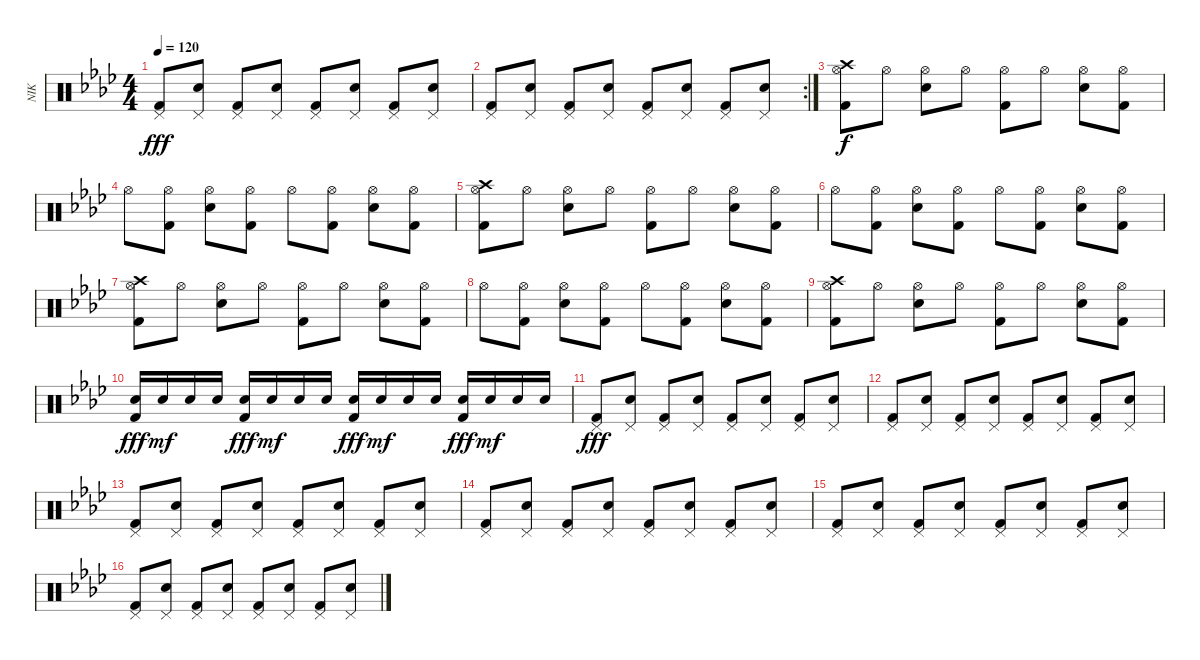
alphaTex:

\track ("NIK" "NIK") {instrument percussion}
\staff {score}
\articulation defaults
\ts (4 4)
\tempo 120
\clef neutral
\ks ab
("Pedal Hi-Hat (hit)" "Kick (hit) 2").8{dy fff} ("Pedal Hi-Hat (hit)" "Electric Snare (hit)").8 ("Pedal Hi-Hat (hit)" "Kick (hit) 2").8 ("Pedal Hi-Hat (hit)" "Electric Snare (hit)").8 ("Pedal Hi-Hat (hit)" "Kick (hit) 2").8 ("Pedal Hi-Hat (hit)" "Electric Snare (hit)").8 ("Pedal Hi-Hat (hit)" "Kick (hit) 2").8 ("Pedal Hi-Hat (hit)" "Electric Snare (hit)").8 |
\rc 2
("Pedal Hi-Hat (hit)" "Kick (hit) 2").8 ("Pedal Hi-Hat (hit)" "Electric Snare (hit)").8 ("Pedal Hi-Hat (hit)" "Kick (hit) 2").8 ("Pedal Hi-Hat (hit)" "Electric Snare (hit)").8 ("Pedal Hi-Hat (hit)" "Kick (hit) 2").8 ("Pedal Hi-Hat (hit)" "Electric Snare (hit)").8 ("Pedal Hi-Hat (hit)" "Kick (hit) 2").8 ("Pedal Hi-Hat (hit)" "Electric Snare (hit)").8 |
("Crash high (hit)" "Hi-Hat (open)" "Kick (hit) 2").8{dy f} "Hi-Hat (open)".8 ("Hi-Hat (open)" "Electric Snare (hit)").8 "Hi-Hat (open)".8 ("Hi-Hat (open)" "Kick (hit) 2").8 "Hi-Hat (open)".8 ("Hi-Hat (open)" "Electric Snare (hit)").8 ("Hi-Hat (open)" "Kick (hit) 2").8 |
"Hi-Hat (open)".8 ("Hi-Hat (open)" "Kick (hit) 2").8 ("Hi-Hat (open)" "Electric Snare (hit)").8 ("Hi-Hat (open)" "Kick (hit) 2").8 "Hi-Hat (open)".8 ("Hi-Hat (open)" "Kick (hit) 2").8 ("Hi-Hat (open)" "Electric Snare (hit)").8 ("Hi-Hat (open)" "Kick (hit) 2").8 |
("Crash high (hit)" "Hi-Hat (open)" "Kick (hit) 2").8 "Hi-Hat (open)".8 ("Hi-Hat (open)" "Electric Snare (hit)").8 "Hi-Hat (open)".8 ("Hi-Hat (open)" "Kick (hit) 2").8 "Hi-Hat (open)".8 ("Hi-Hat (open)" "Electric Snare (hit)").8 ("Hi-Hat (open)" "Kick (hit) 2").8 |
"Hi-Hat (open)".8 ("Hi-Hat (open)" "Kick (hit) 2").8 ("Hi-Hat (open)" "Electric Snare (hit)").8 ("Hi-Hat (open)" "Kick (hit) 2").8 "Hi-Hat (open)".8 ("Hi-Hat (open)" "Kick (hit) 2").8 ("Hi-Hat (open)" "Electric Snare (hit)").8 ("Hi-Hat (open)" "Kick (hit) 2").8 |
("Crash high (hit)" "Hi-Hat (open)" "Kick (hit) 2").8 "Hi-Hat (open)".8 ("Hi-Hat (open)" "Electric Snare (hit)").8 "Hi-Hat (open)".8 ("Hi-Hat (open)" "Kick (hit) 2").8 "Hi-Hat (open)".8 ("Hi-Hat (open)" "Electric Snare (hit)").8 ("Hi-Hat (open)" "Kick (hit) 2").8 |
"Hi-Hat (open)".8 ("Hi-Hat (open)" "Kick (hit) 2").8 ("Hi-Hat (open)" "Electric Snare (hit)").8 ("Hi-Hat (open)" "Kick (hit) 2").8 "Hi-Hat (open)".8 ("Hi-Hat (open)" "Kick (hit) 2").8 ("Hi-Hat (open)" "Electric Snare (hit)").8 ("Hi-Hat (open)" "Kick (hit) 2").8 |
("Crash high (hit)" "Hi-Hat (open)" "Kick (hit) 2").8 "Hi-Hat (open)".8 ("Hi-Hat (open)" "Electric Snare (hit)").8 "Hi-Hat (open)".8 ("Hi-Hat (open)" "Kick (hit) 2").8 "Hi-Hat (open)".8 ("Hi-Hat (open)" "Electric Snare (hit)").8 ("Hi-Hat (open)" "Kick (hit) 2").8 |
("Electric Snare (hit)" "Kick (hit) 2").16{dy fff} "Electric Snare (hit)".16{dy mf} "Electric Snare (hit)".16 "Electric Snare (hit)".16 ("Electric Snare (hit)" "Kick (hit) 2").16{dy fff} "Electric Snare (hit)".16{dy mf} "Electric Snare (hit)".16 "Electric Snare (hit)".16 ("Electric Snare (hit)" "Kick (hit) 2").16{dy fff} "Electric Snare (hit)".16{dy mf} "Electric Snare (hit)".16 "Electric Snare (hit)".16 ("Electric Snare (hit)" "Kick (hit) 2").16{dy fff} "Electric Snare (hit)".16{dy mf} "Electric Snare (hit)".16 "Electric Snare (hit)".16 |
("Pedal Hi-Hat (hit)" "Kick (hit) 2").8{dy fff} ("Pedal Hi-Hat (hit)" "Electric Snare (hit)").8 ("Pedal Hi-Hat (hit)" "Kick (hit) 2").8 ("Pedal Hi-Hat (hit)" "Electric Snare (hit)").8 ("Pedal Hi-Hat (hit)" "Kick (hit) 2").8 ("Pedal Hi-Hat (hit)" "Electric Snare (hit)").8 ("Pedal Hi-Hat (hit)" "Kick (hit) 2").8 ("Pedal Hi-Hat (hit)" "Electric Snare (hit)").8 |
("Pedal Hi-Hat (hit)" "Kick (hit) 2").8 ("Pedal Hi-Hat (hit)" "Electric Snare (hit)").8 ("Pedal Hi-Hat (hit)" "Kick (hit) 2").8 ("Pedal Hi-Hat (hit)" "Electric Snare (hit)").8 ("Pedal Hi-Hat (hit)" "Kick (hit) 2").8 ("Pedal Hi-Hat (hit)" "Electric Snare (hit)").8 ("Pedal Hi-Hat (hit)" "Kick (hit) 2").8 ("Pedal Hi-Hat (hit)" "Electric Snare (hit)").8 |
("Pedal Hi-Hat (hit)" "Kick (hit) 2").8 ("Pedal Hi-Hat (hit)" "Electric Snare (hit)").8 ("Pedal Hi-Hat (hit)" "Kick (hit) 2").8 ("Pedal Hi-Hat (hit)" "Electric Snare (hit)").8 ("Pedal Hi-Hat (hit)" "Kick (hit) 2").8 ("Pedal Hi-Hat (hit)" "Electric Snare (hit)").8 ("Pedal Hi-Hat (hit)" "Kick (hit) 2").8 ("Pedal Hi-Hat (hit)" "Electric Snare (hit)").8 |
("Pedal Hi-Hat (hit)" "Kick (hit) 2").8 ("Pedal Hi-Hat (hit)" "Electric Snare (hit)").8 ("Pedal Hi-Hat (hit)" "Kick (hit) 2").8 ("Pedal Hi-Hat (hit)" "Electric Snare (hit)").8 ("Pedal Hi-Hat (hit)" "Kick (hit) 2").8 ("Pedal Hi-Hat (hit)" "Electric Snare (hit)").8 ("Pedal Hi-Hat (hit)" "Kick (hit) 2").8 ("Pedal Hi-Hat (hit)" "Electric Snare (hit)").8 |
("Pedal Hi-Hat (hit)" "Kick (hit) 2").8 ("Pedal Hi-Hat (hit)" "Electric Snare (hit)").8 ("Pedal Hi-Hat (hit)" "Kick (hit) 2").8 ("Pedal Hi-Hat (hit)" "Electric Snare (hit)").8 ("Pedal Hi-Hat (hit)" "Kick (hit) 2").8 ("Pedal Hi-Hat (hit)" "Electric Snare (hit)").8 ("Pedal Hi-Hat (hit)" "Kick (hit) 2").8 ("Pedal Hi-Hat (hit)" "Electric Snare (hit)").8 |
("Pedal Hi-Hat (hit)" "Kick (hit) 2").8 ("Pedal Hi-Hat (hit)" "Electric Snare (hit)").8 ("Pedal Hi-Hat (hit)" "Kick (hit) 2").8 ("Pedal Hi-Hat (hit)" "Electric Snare (hit)").8 ("Pedal Hi-Hat (hit)" "Kick (hit) 2").8 ("Pedal Hi-Hat (hit)" "Electric Snare (hit)").8 ("Pedal Hi-Hat (hit)" "Kick (hit) 2").8 ("Pedal Hi-Hat (hit)" "Electric Snare (hit)").8
